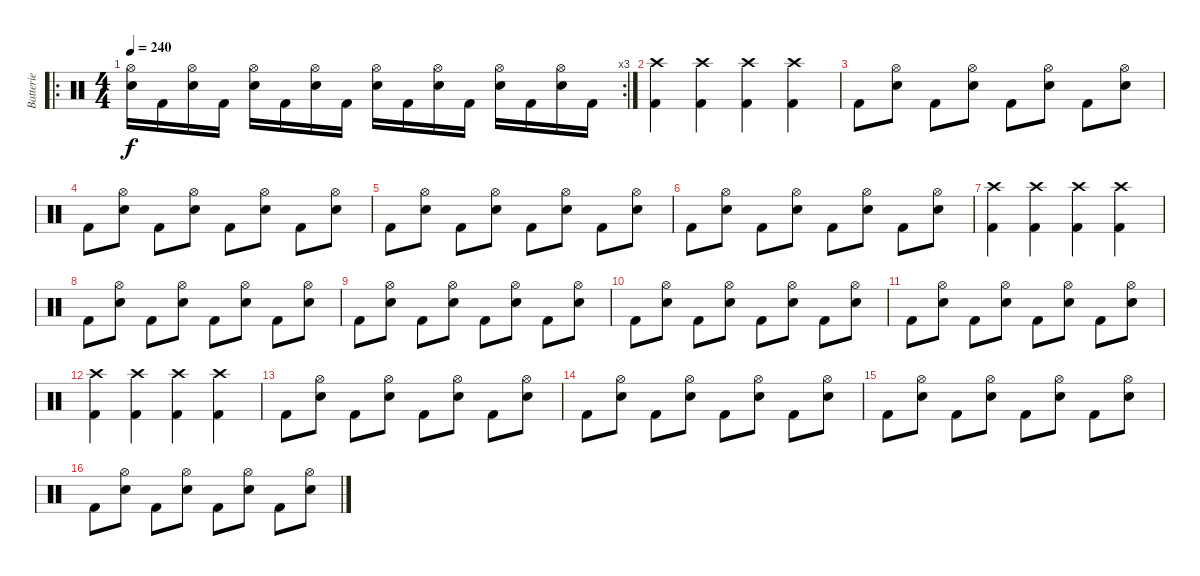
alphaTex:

\track ("Batterie" "Batterie") {instrument percussion}
\staff {score}
\articulation defaults
\ro
\rc 3
\ts (4 4)
\tempo 240
\clef neutral
\ks c
("Hi-Hat (open)" "Snare (hit) 2").16{dy f} "Kick (hit) 2".16 ("Hi-Hat (open)" "Snare (hit) 2").16 "Kick (hit) 2".16 ("Hi-Hat (open)" "Snare (hit) 2").16 "Kick (hit) 2".16 ("Hi-Hat (open)" "Snare (hit) 2").16 "Kick (hit) 2".16 ("Hi-Hat (open)" "Snare (hit) 2").16 "Kick (hit) 2".16 ("Hi-Hat (open)" "Snare (hit) 2").16 "Kick (hit) 2".16 ("Hi-Hat (open)" "Snare (hit) 2").16 "Kick (hit) 2".16 ("Hi-Hat (open)" "Snare (hit) 2").16 "Kick (hit) 2".16 |
("Crash high (hit)" "Kick (hit) 2").4 ("Crash high (hit)" "Kick (hit) 2").4 ("Crash high (hit)" "Kick (hit) 2").4 ("Crash high (hit)" "Kick (hit) 2").4 |
"Kick (hit) 2".8 ("Hi-Hat (open)" "Snare (hit) 2").8 "Kick (hit) 2".8 ("Hi-Hat (open)" "Snare (hit) 2").8 "Kick (hit) 2".8 ("Hi-Hat (open)" "Snare (hit) 2").8 "Kick (hit) 2".8 ("Hi-Hat (open)" "Snare (hit) 2").8 |
"Kick (hit) 2".8 ("Hi-Hat (open)" "Snare (hit) 2").8 "Kick (hit) 2".8 ("Hi-Hat (open)" "Snare (hit) 2").8 "Kick (hit) 2".8 ("Hi-Hat (open)" "Snare (hit) 2").8 "Kick (hit) 2".8 ("Hi-Hat (open)" "Snare (hit) 2").8 |
"Kick (hit) 2".8 ("Hi-Hat (open)" "Snare (hit) 2").8 "Kick (hit) 2".8 ("Hi-Hat (open)" "Snare (hit) 2").8 "Kick (hit) 2".8 ("Hi-Hat (open)" "Snare (hit) 2").8 "Kick (hit) 2".8 ("Hi-Hat (open)" "Snare (hit) 2").8 |
"Kick (hit) 2".8 ("Hi-Hat (open)" "Snare (hit) 2").8 "Kick (hit) 2".8 ("Hi-Hat (open)" "Snare (hit) 2").8 "Kick (hit) 2".8 ("Hi-Hat (open)" "Snare (hit) 2").8 "Kick (hit) 2".8 ("Hi-Hat (open)" "Snare (hit) 2").8 |
("Crash high (hit)" "Kick (hit) 2").4 ("Crash high (hit)" "Kick (hit) 2").4 ("Crash high (hit)" "Kick (hit) 2").4 ("Crash high (hit)" "Kick (hit) 2").4 |
"Kick (hit) 2".8 ("Hi-Hat (open)" "Snare (hit) 2").8 "Kick (hit) 2".8 ("Hi-Hat (open)" "Snare (hit) 2").8 "Kick (hit) 2".8 ("Hi-Hat (open)" "Snare (hit) 2").8 "Kick (hit) 2".8 ("Hi-Hat (open)" "Snare (hit) 2").8 |
"Kick (hit) 2".8 ("Hi-Hat (open)" "Snare (hit) 2").8 "Kick (hit) 2".8 ("Hi-Hat (open)" "Snare (hit) 2").8 "Kick (hit) 2".8 ("Hi-Hat (open)" "Snare (hit) 2").8 "Kick (hit) 2".8 ("Hi-Hat (open)" "Snare (hit) 2").8 |
"Kick (hit) 2".8 ("Hi-Hat (open)" "Snare (hit) 2").8 "Kick (hit) 2".8 ("Hi-Hat (open)" "Snare (hit) 2").8 "Kick (hit) 2".8 ("Hi-Hat (open)" "Snare (hit) 2").8 "Kick (hit) 2".8 ("Hi-Hat (open)" "Snare (hit) 2").8 |
"Kick (hit) 2".8 ("Hi-Hat (open)" "Snare (hit) 2").8 "Kick (hit) 2".8 ("Hi-Hat (open)" "Snare (hit) 2").8 "Kick (hit) 2".8 ("Hi-Hat (open)" "Snare (hit) 2").8 "Kick (hit) 2".8 ("Hi-Hat (open)" "Snare (hit) 2").8 |
("Crash high (hit)" "Kick (hit) 2").4 ("Crash high (hit)" "Kick (hit) 2").4 ("Crash high (hit)" "Kick (hit) 2").4 ("Crash high (hit)" "Kick (hit) 2").4 |
"Kick (hit) 2".8 ("Hi-Hat (open)" "Snare (hit) 2").8 "Kick (hit) 2".8 ("Hi-Hat (open)" "Snare (hit) 2").8 "Kick (hit) 2".8 ("Hi-Hat (open)" "Snare (hit) 2").8 "Kick (hit) 2".8 ("Hi-Hat (open)" "Snare (hit) 2").8 |
"Kick (hit) 2".8 ("Hi-Hat (open)" "Snare (hit) 2").8 "Kick (hit) 2".8 ("Hi-Hat (open)" "Snare (hit) 2").8 "Kick (hit) 2".8 ("Hi-Hat (open)" "Snare (hit) 2").8 "Kick (hit) 2".8 ("Hi-Hat (open)" "Snare (hit) 2").8 |
"Kick (hit) 2".8 ("Hi-Hat (open)" "Snare (hit) 2").8 "Kick (hit) 2".8 ("Hi-Hat (open)" "Snare (hit) 2").8 "Kick (hit) 2".8 ("Hi-Hat (open)" "Snare (hit) 2").8 "Kick (hit) 2".8 ("Hi-Hat (open)" "Snare (hit) 2").8 |
"Kick (hit) 2".8 ("Hi-Hat (open)" "Snare (hit) 2").8 "Kick (hit) 2".8 ("Hi-Hat (open)" "Snare (hit) 2").8 "Kick (hit) 2".8 ("Hi-Hat (open)" "Snare (hit) 2").8 "Kick (hit) 2".8 ("Hi-Hat (open)" "Snare (hit) 2").8
